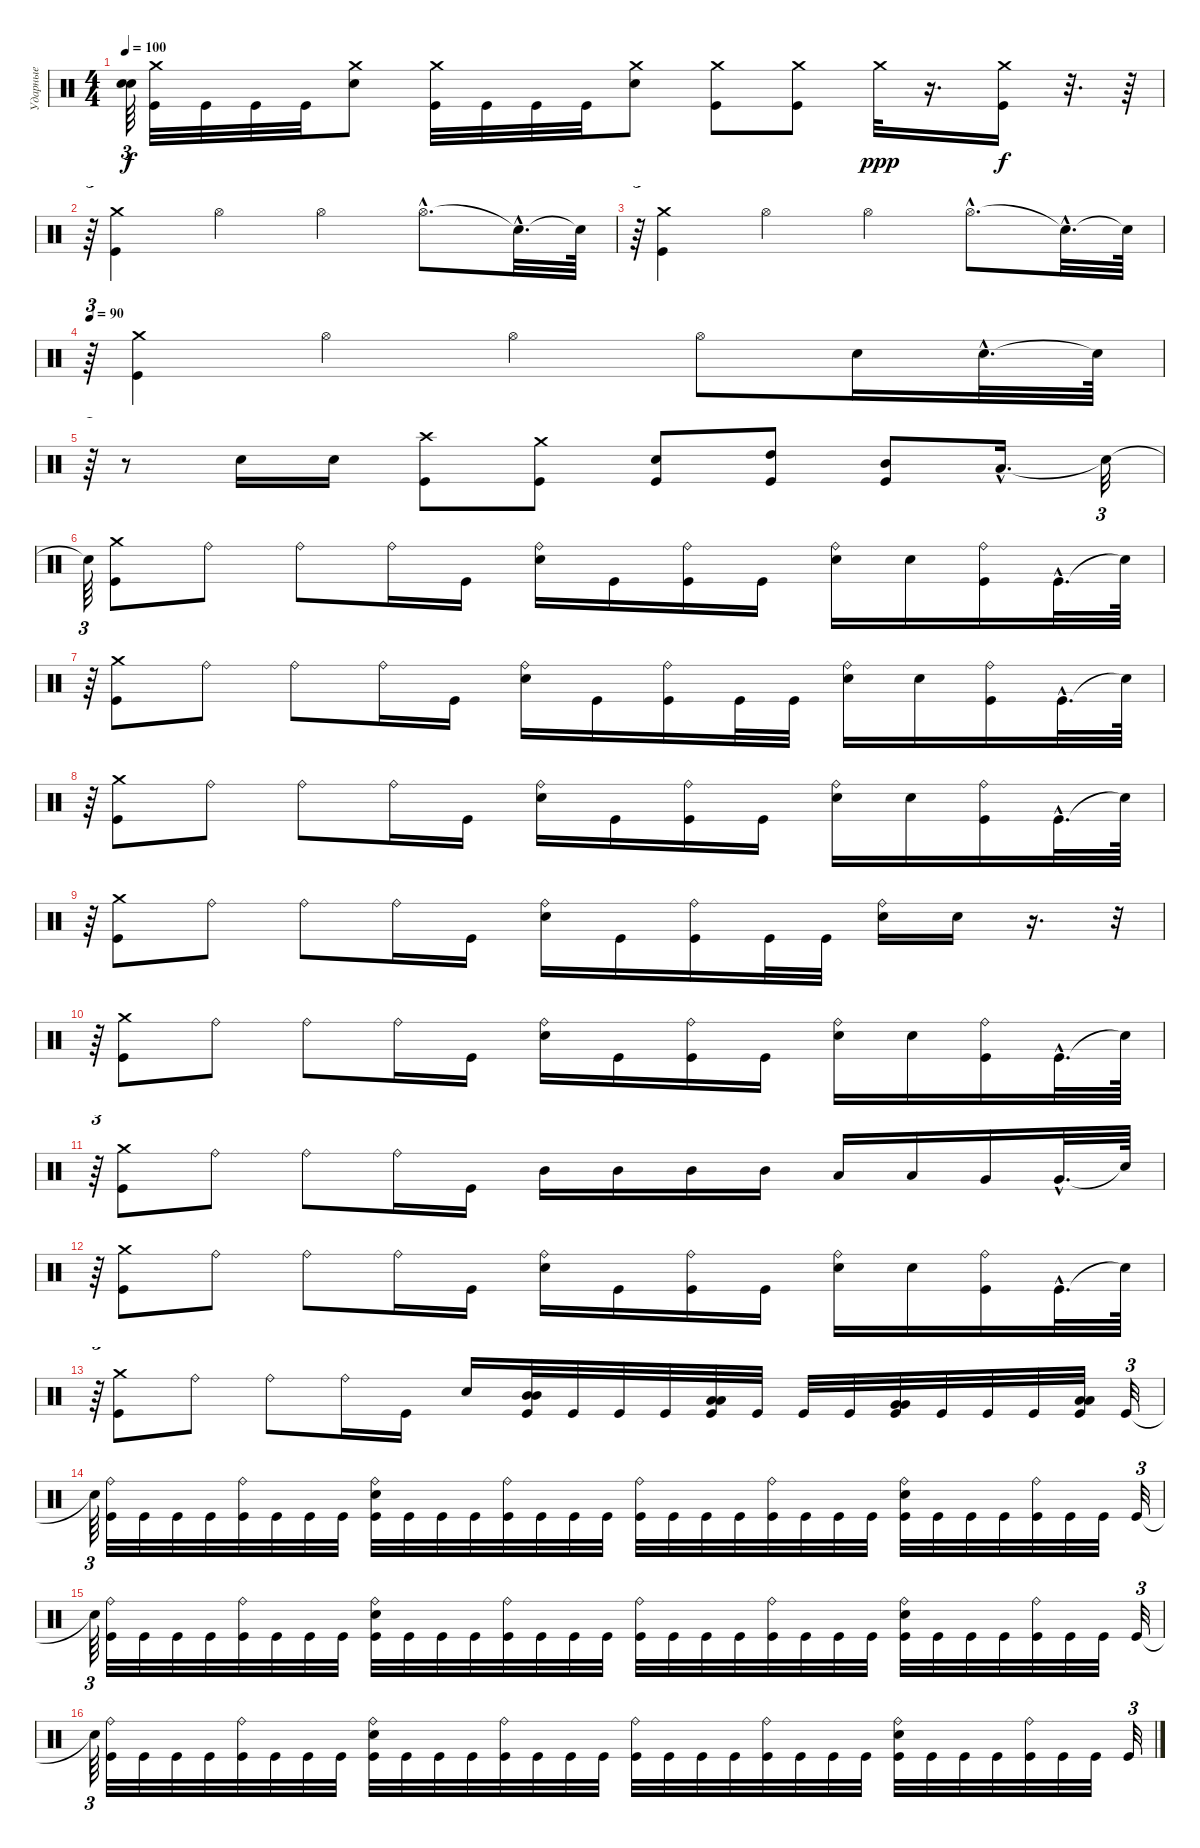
\track ("Ударные" "Ударные") {instrument percussion}
\staff {score}
\articulation defaults
\ts (4 4)
\tempo 100
\clef neutral
\ks c
("Snare (hit)"{t} "Snare (hit)"{t}).64{tu (3 2) dy f} ("Crash medium (hit)" "Kick (hit)").32 "Kick (hit)".32 "Kick (hit)".32 "Kick (hit)".32 ("Crash medium (hit)" "Snare (hit) 2").8 ("Crash medium (hit)" "Kick (hit)").32 "Kick (hit)".32 "Kick (hit)".32 "Kick (hit)".32 ("Crash medium (hit)" "Snare (hit) 2").8 ("Crash medium (hit)" "Kick (hit)").8 ("Crash medium (hit)" "Kick (hit)").8 "Crash medium (hit)".32{dy ppp} r.16{d} ("Crash medium (hit)" "Kick (hit)").16{dy f} r.32{d} r.64 |
r.64{tu (3 2)} ("Crash medium (hit)" "Kick (hit)").4 "Hi-Hat (open)".4 "Hi-Hat (open)".4 "Hi-Hat (open)"{hac}.8{d} "Snare (hit)"{hac t}.32{d} "Snare (hit)"{t}.64 |
r.64{tu (3 2)} ("Crash medium (hit)" "Kick (hit)").4 "Hi-Hat (open)".4 "Hi-Hat (open)".4 "Hi-Hat (open)"{hac}.8{d} "Snare (hit)"{hac t}.32{d} "Snare (hit)"{t}.64 |
\tempo 90
r.64{tu (3 2)} ("Crash medium (hit)" "Kick (hit)").4 "Hi-Hat (open)".4 "Hi-Hat (open)".4 "Hi-Hat (open)".8 "Snare (hit) 2".16 "Snare (hit) 2"{hac}.32{d} "Snare (hit)"{t}.64 |
r.64{tu (3 2)} r.8 "Snare (hit) 2".16 "Snare (hit) 2".16 ("Crash high (hit)" "Kick (hit)").8 ("Crash medium (hit)" "Kick (hit)").8 ("Snare (hit) 2" "Kick (hit)").8 ("High Tom (hit)" "Kick (hit)").8 ("Mid Tom (hit)" "Kick (hit)").8 "Low Tom (hit)"{hac}.16{d} "Snare (hit)"{t}.32{tu (3 2)} |
"Snare (hit)"{t}.64{tu (3 2)} ("Crash medium (hit)" "Kick (hit)").8 "Ride (bell)".8 "Ride (bell)".8 "Ride (bell)".16 "Kick (hit)".16 ("Ride (bell)" "Snare (hit) 2").16 "Kick (hit)".16 ("Ride (bell)" "Kick (hit)").16 "Kick (hit)".16 ("Ride (bell)" "Snare (hit) 2").16 "Snare (hit) 2".16 ("Ride (bell)" "Kick (hit)").16 "Kick (hit)"{hac}.32{d} "Snare (hit)"{t}.64 |
r.64{tu (3 2)} ("Crash medium (hit)" "Kick (hit)").8 "Ride (bell)".8 "Ride (bell)".8 "Ride (bell)".16 "Kick (hit)".16 ("Ride (bell)" "Snare (hit) 2").16 "Kick (hit)".16 ("Ride (bell)" "Kick (hit)").16 "Kick (hit)".32 "Kick (hit)".32 ("Ride (bell)" "Snare (hit) 2").16 "Snare (hit) 2".16 ("Ride (bell)" "Kick (hit)").16 "Kick (hit)"{hac}.32{d} "Snare (hit)"{t}.64 |
r.64{tu (3 2)} ("Crash medium (hit)" "Kick (hit)").8 "Ride (bell)".8 "Ride (bell)".8 "Ride (bell)".16 "Kick (hit)".16 ("Ride (bell)" "Snare (hit) 2").16 "Kick (hit)".16 ("Ride (bell)" "Kick (hit)").16 "Kick (hit)".16 ("Ride (bell)" "Snare (hit) 2").16 "Snare (hit) 2".16 ("Ride (bell)" "Kick (hit)").16 "Kick (hit)"{hac}.32{d} "Snare (hit)"{t}.64 |
r.64{tu (3 2)} ("Crash medium (hit)" "Kick (hit)").8 "Ride (bell)".8 "Ride (bell)".8 "Ride (bell)".16 "Kick (hit)".16 ("Ride (bell)" "Snare (hit) 2").16 "Kick (hit)".16 ("Ride (bell)" "Kick (hit)").16 "Kick (hit)".32 "Kick (hit)".32 ("Ride (bell)" "Snare (hit) 2").16 "Snare (hit) 2".16 r.16{d} r.32{tu (3 2)} |
r.64{tu (3 2)} ("Crash medium (hit)" "Kick (hit)").8 "Ride (bell)".8 "Ride (bell)".8 "Ride (bell)".16 "Kick (hit)".16 ("Ride (bell)" "Snare (hit) 2").16 "Kick (hit)".16 ("Ride (bell)" "Kick (hit)").16 "Kick (hit)".16 ("Ride (bell)" "Snare (hit) 2").16 "Snare (hit) 2".16 ("Ride (bell)" "Kick (hit)").16 "Kick (hit)"{hac}.32{d} "Snare (hit)"{t}.64 |
r.64{tu (3 2)} ("Crash medium (hit)" "Kick (hit)").8 "Ride (bell)".8 "Ride (bell)".8 "Ride (bell)".16 "Kick (hit)".16 "Mid Tom (hit)".16 "Mid Tom (hit)".16 "Mid Tom (hit)".16 "Mid Tom (hit)".16 "Low Tom (hit)".16 "Low Tom (hit)".16 "Very Low Tom (hit)".16 "Very Low Tom (hit)"{hac}.32{d} "Snare (hit)"{t}.64 |
r.64{tu (3 2)} ("Crash medium (hit)" "Kick (hit)").8 "Ride (bell)".8 "Ride (bell)".8 "Ride (bell)".16 "Kick (hit)".16 ("Ride (bell)" "Snare (hit) 2").16 "Kick (hit)".16 ("Ride (bell)" "Kick (hit)").16 "Kick (hit)".16 ("Ride (bell)" "Snare (hit) 2").16 "Snare (hit) 2".16 ("Ride (bell)" "Kick (hit)").16 "Kick (hit)"{hac}.32{d} "Snare (hit)"{t}.64 |
r.64{tu (3 2)} ("Crash medium (hit)" "Kick (hit)").8 "Ride (bell)".8 "Ride (bell)".8 "Ride (bell)".16 "Kick (hit)".16 "Snare (hit) 2".16 ("Mid Tom (hit)" "Mid Tom (hit)" "Kick (hit)").32 "Kick (hit)".32 "Kick (hit)".32 "Kick (hit)".32 ("Low Tom (hit)" "Low Tom (hit)" "Kick (hit)").32 "Kick (hit)".32 "Kick (hit)".32 "Kick (hit)".32 ("Very Low Tom (hit)" "Very Low Tom (hit)" "Kick (hit)").32 "Kick (hit)".32 "Kick (hit)".32 "Kick (hit)".32 ("Low Floor Tom (hit)" "Low Floor Tom (hit)" "Kick (hit)").32 "Kick (hit)".32{tu (3 2)} |
"Snare (hit)"{t}.64{tu (3 2)} ("Ride (bell)" "Kick (hit)").32 "Kick (hit)".32 "Kick (hit)".32 "Kick (hit)".32 ("Ride (bell)" "Kick (hit)").32 "Kick (hit)".32 "Kick (hit)".32 "Kick (hit)".32 ("Ride (bell)" "Snare (hit) 2" "Kick (hit)").32 "Kick (hit)".32 "Kick (hit)".32 "Kick (hit)".32 ("Ride (bell)" "Kick (hit)").32 "Kick (hit)".32 "Kick (hit)".32 "Kick (hit)".32 ("Ride (bell)" "Kick (hit)").32 "Kick (hit)".32 "Kick (hit)".32 "Kick (hit)".32 ("Ride (bell)" "Kick (hit)").32 "Kick (hit)".32 "Kick (hit)".32 "Kick (hit)".32 ("Ride (bell)" "Snare (hit) 2" "Kick (hit)").32 "Kick (hit)".32 "Kick (hit)".32 "Kick (hit)".32 ("Ride (bell)" "Kick (hit)").32 "Kick (hit)".32 "Kick (hit)".32 "Kick (hit)".32{tu (3 2)} |
"Snare (hit)"{t}.64{tu (3 2)} ("Ride (bell)" "Kick (hit)").32 "Kick (hit)".32 "Kick (hit)".32 "Kick (hit)".32 ("Ride (bell)" "Kick (hit)").32 "Kick (hit)".32 "Kick (hit)".32 "Kick (hit)".32 ("Ride (bell)" "Snare (hit) 2" "Kick (hit)").32 "Kick (hit)".32 "Kick (hit)".32 "Kick (hit)".32 ("Ride (bell)" "Kick (hit)").32 "Kick (hit)".32 "Kick (hit)".32 "Kick (hit)".32 ("Ride (bell)" "Kick (hit)").32 "Kick (hit)".32 "Kick (hit)".32 "Kick (hit)".32 ("Ride (bell)" "Kick (hit)").32 "Kick (hit)".32 "Kick (hit)".32 "Kick (hit)".32 ("Ride (bell)" "Snare (hit) 2" "Kick (hit)").32 "Kick (hit)".32 "Kick (hit)".32 "Kick (hit)".32 ("Ride (bell)" "Kick (hit)").32 "Kick (hit)".32 "Kick (hit)".32 "Kick (hit)".32{tu (3 2)} |
"Snare (hit)"{t}.64{tu (3 2)} ("Ride (bell)" "Kick (hit)").32 "Kick (hit)".32 "Kick (hit)".32 "Kick (hit)".32 ("Ride (bell)" "Kick (hit)").32 "Kick (hit)".32 "Kick (hit)".32 "Kick (hit)".32 ("Ride (bell)" "Snare (hit) 2" "Kick (hit)").32 "Kick (hit)".32 "Kick (hit)".32 "Kick (hit)".32 ("Ride (bell)" "Kick (hit)").32 "Kick (hit)".32 "Kick (hit)".32 "Kick (hit)".32 ("Ride (bell)" "Kick (hit)").32 "Kick (hit)".32 "Kick (hit)".32 "Kick (hit)".32 ("Ride (bell)" "Kick (hit)").32 "Kick (hit)".32 "Kick (hit)".32 "Kick (hit)".32 ("Ride (bell)" "Snare (hit) 2" "Kick (hit)").32 "Kick (hit)".32 "Kick (hit)".32 "Kick (hit)".32 ("Ride (bell)" "Kick (hit)").32 "Kick (hit)".32 "Kick (hit)".32 "Kick (hit)".32{tu (3 2)}
